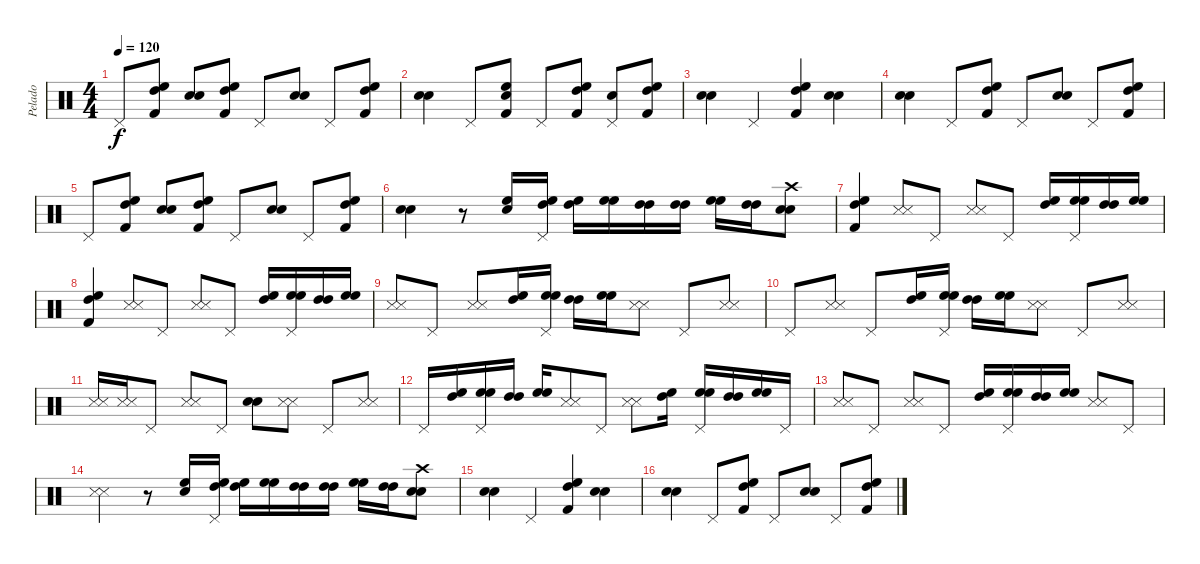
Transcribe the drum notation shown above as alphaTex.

\track ("Pelado" "Pelado") {instrument percussion}
\staff {score}
\articulation defaults
\ts (4 4)
\tempo 120
\clef neutral
\ks c "Pedal Hi-Hat (hit)".8{dy f}
("Kick (hit) 2" "High Floor Tom (hit)" "High Tom (hit)").8 ("Electric Snare (hit)" "Electric Snare (hit)").8 ("Kick (hit) 2" "High Floor Tom (hit)" "High Tom (hit)").8 "Pedal Hi-Hat (hit)".8 ("Electric Snare (hit)" "Electric Snare (hit)").8 "Pedal Hi-Hat (hit)".8 ("Kick (hit) 2" "High Floor Tom (hit)" "High Tom (hit)").8 |
("Electric Snare (hit)" "Electric Snare (hit)").4 "Pedal Hi-Hat (hit)".8 ("Kick (hit) 2" "High Floor Tom (hit)" "Snare (hit) 2").8 "Pedal Hi-Hat (hit)".8 ("Kick (hit) 2" "High Floor Tom (hit)" "High Tom (hit)").8 ("Pedal Hi-Hat (hit)" "Electric Snare (hit)").8 ("Kick (hit) 2" "High Floor Tom (hit)" "High Tom (hit)").8 |
("Electric Snare (hit)" "Electric Snare (hit)").4 "Pedal Hi-Hat (hit)".4 ("Kick (hit) 2" "High Floor Tom (hit)" "High Tom (hit)").4 ("Electric Snare (hit)" "Electric Snare (hit)").4 |
("Electric Snare (hit)" "Electric Snare (hit)").4 "Pedal Hi-Hat (hit)".8 ("Kick (hit) 2" "High Floor Tom (hit)" "High Tom (hit)").8 "Pedal Hi-Hat (hit)".8 ("Electric Snare (hit)" "Electric Snare (hit)").8 "Pedal Hi-Hat (hit)".8 ("Kick (hit) 2" "High Floor Tom (hit)" "High Tom (hit)").8 |
"Pedal Hi-Hat (hit)".8 ("Kick (hit) 2" "High Floor Tom (hit)" "High Tom (hit)").8 ("Electric Snare (hit)" "Electric Snare (hit)").8 ("Kick (hit) 2" "High Floor Tom (hit)" "High Tom (hit)").8 "Pedal Hi-Hat (hit)".8 ("Electric Snare (hit)" "Electric Snare (hit)").8 "Pedal Hi-Hat (hit)".8 ("Kick (hit) 2" "High Floor Tom (hit)" "High Tom (hit)").8 |
("Electric Snare (hit)" "Electric Snare (hit)").4 r.8 ("High Floor Tom (hit)" "Snare (hit) 2").16 ("Pedal Hi-Hat (hit)" "High Floor Tom (hit)" "High Tom (hit)").16 ("High Floor Tom (hit)" "High Tom (hit)").16 ("High Floor Tom (hit)" "High Floor Tom (hit)").16 ("High Tom (hit)" "High Tom (hit)").16 ("High Tom (hit)" "High Tom (hit)").16 ("High Floor Tom (hit)" "High Floor Tom (hit)").16 ("High Tom (hit)" "High Tom (hit)").16 ("Crash high (hit)" "Electric Snare (hit)" "Electric Snare (hit)").8 |
("Kick (hit) 2" "High Floor Tom (hit)" "High Tom (hit)").4 ("Snare (side stick) 3" "Snare (side stick) 3").8 "Pedal Hi-Hat (hit)".8 ("Snare (side stick) 3" "Snare (side stick) 3").8 "Pedal Hi-Hat (hit)".8 ("High Floor Tom (hit)" "High Tom (hit)").16 ("Pedal Hi-Hat (hit)" "High Floor Tom (hit)" "High Floor Tom (hit)").16 ("High Tom (hit)" "High Tom (hit)").16 ("High Floor Tom (hit)" "High Floor Tom (hit)").16 |
("Kick (hit) 2" "High Floor Tom (hit)" "High Tom (hit)").4 ("Snare (side stick) 3" "Snare (side stick) 3").8 "Pedal Hi-Hat (hit)".8 ("Snare (side stick) 3" "Snare (side stick) 3").8 "Pedal Hi-Hat (hit)".8 ("High Floor Tom (hit)" "High Tom (hit)").16 ("Pedal Hi-Hat (hit)" "High Floor Tom (hit)" "High Floor Tom (hit)").16 ("High Tom (hit)" "High Tom (hit)").16 ("High Floor Tom (hit)" "High Floor Tom (hit)").16 |
("Snare (side stick) 3" "Snare (side stick) 3").8 "Pedal Hi-Hat (hit)".8 ("Snare (side stick) 3" "Snare (side stick) 3").8 ("High Floor Tom (hit)" "High Tom (hit)").16 ("Pedal Hi-Hat (hit)" "High Floor Tom (hit)" "High Floor Tom (hit)").16 ("High Tom (hit)" "High Tom (hit)").16 ("High Floor Tom (hit)" "High Floor Tom (hit)").16 ("Snare (side stick) 3" "Snare (side stick) 3").8 "Pedal Hi-Hat (hit)".8 ("Snare (side stick) 3" "Snare (side stick) 3").8 |
"Pedal Hi-Hat (hit)".8 ("Snare (side stick) 3" "Snare (side stick) 3").8 "Pedal Hi-Hat (hit)".8 ("High Floor Tom (hit)" "High Tom (hit)").16 ("Pedal Hi-Hat (hit)" "High Floor Tom (hit)" "High Floor Tom (hit)").16 ("High Tom (hit)" "High Tom (hit)").16 ("High Floor Tom (hit)" "High Floor Tom (hit)").16 ("Snare (side stick) 3" "Snare (side stick) 3").8 "Pedal Hi-Hat (hit)".8 ("Snare (side stick) 3" "Snare (side stick) 3").8 |
("Snare (side stick) 3" "Snare (side stick) 3").16 ("Snare (side stick) 3" "Snare (side stick) 3").16 "Pedal Hi-Hat (hit)".8 ("Snare (side stick) 3" "Snare (side stick) 3").8 "Pedal Hi-Hat (hit)".8 ("Electric Snare (hit)" "Snare (hit) 2").8 ("Snare (side stick) 3" "Snare (side stick) 3").8 "Pedal Hi-Hat (hit)".8 ("Snare (side stick) 3" "Snare (side stick) 3").8 |
"Pedal Hi-Hat (hit)".16 ("High Floor Tom (hit)" "High Tom (hit)").16 ("Pedal Hi-Hat (hit)" "High Floor Tom (hit)" "High Floor Tom (hit)").16 ("High Tom (hit)" "High Tom (hit)").16 ("High Floor Tom (hit)" "High Floor Tom (hit)").16 ("Snare (side stick) 3" "Snare (side stick) 3").8 "Pedal Hi-Hat (hit)".8 ("Snare (side stick) 3" "Snare (side stick) 3").8 ("High Floor Tom (hit)" "High Tom (hit)").16 ("Pedal Hi-Hat (hit)" "High Floor Tom (hit)" "High Floor Tom (hit)").16 ("High Tom (hit)" "High Tom (hit)").16 ("High Floor Tom (hit)" "High Floor Tom (hit)").16 "Pedal Hi-Hat (hit)".16 |
("Snare (side stick) 3" "Snare (side stick) 3").8 "Pedal Hi-Hat (hit)".8 ("Snare (side stick) 3" "Snare (side stick) 3").8 "Pedal Hi-Hat (hit)".8 ("High Floor Tom (hit)" "High Tom (hit)").16 ("Pedal Hi-Hat (hit)" "High Floor Tom (hit)" "High Floor Tom (hit)").16 ("High Tom (hit)" "High Tom (hit)").16 ("High Floor Tom (hit)" "High Floor Tom (hit)").16 ("Snare (side stick) 3" "Snare (side stick) 3").8 "Pedal Hi-Hat (hit)".8 |
("Snare (side stick) 3" "Snare (side stick) 3").4 r.8 ("High Floor Tom (hit)" "Snare (hit) 2").16 ("Pedal Hi-Hat (hit)" "High Floor Tom (hit)" "High Tom (hit)").16 ("High Floor Tom (hit)" "High Tom (hit)").16 ("High Floor Tom (hit)" "High Floor Tom (hit)").16 ("High Tom (hit)" "High Tom (hit)").16 ("High Tom (hit)" "High Tom (hit)").16 ("High Floor Tom (hit)" "High Floor Tom (hit)").16 ("High Tom (hit)" "High Tom (hit)").16 ("Crash high (hit)" "Electric Snare (hit)" "Electric Snare (hit)").8 |
("Electric Snare (hit)" "Electric Snare (hit)").4 "Pedal Hi-Hat (hit)".4 ("Kick (hit) 2" "High Floor Tom (hit)" "High Tom (hit)").4 ("Electric Snare (hit)" "Electric Snare (hit)").4 |
("Electric Snare (hit)" "Electric Snare (hit)").4 "Pedal Hi-Hat (hit)".8 ("Kick (hit) 2" "High Floor Tom (hit)" "High Tom (hit)").8 "Pedal Hi-Hat (hit)".8 ("Electric Snare (hit)" "Electric Snare (hit)").8 "Pedal Hi-Hat (hit)".8 ("Kick (hit) 2" "High Floor Tom (hit)" "High Tom (hit)").8
